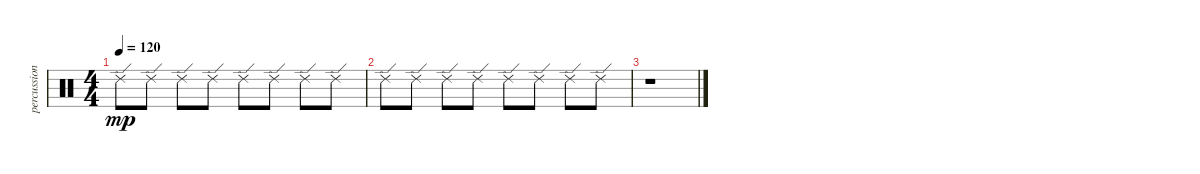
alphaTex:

\track ("percussion" "percussion") {instrument percussion}
\staff {score}
\articulation defaults
\ts (4 4)
\tempo 120
\clef neutral
\ks c "Ride (edge) 2".8{dy mp} "Ride (edge) 2".8 "Ride (edge) 2".8 "Ride (edge) 2".8 "Ride (edge) 2".8 "Ride (edge) 2".8 "Ride (edge) 2".8 "Ride (edge) 2".8
|
"Ride (edge) 2".8 "Ride (edge) 2".8 "Ride (edge) 2".8 "Ride (edge) 2".8 "Ride (edge) 2".8 "Ride (edge) 2".8 "Ride (edge) 2".8 "Ride (edge) 2".8 |
r.1
